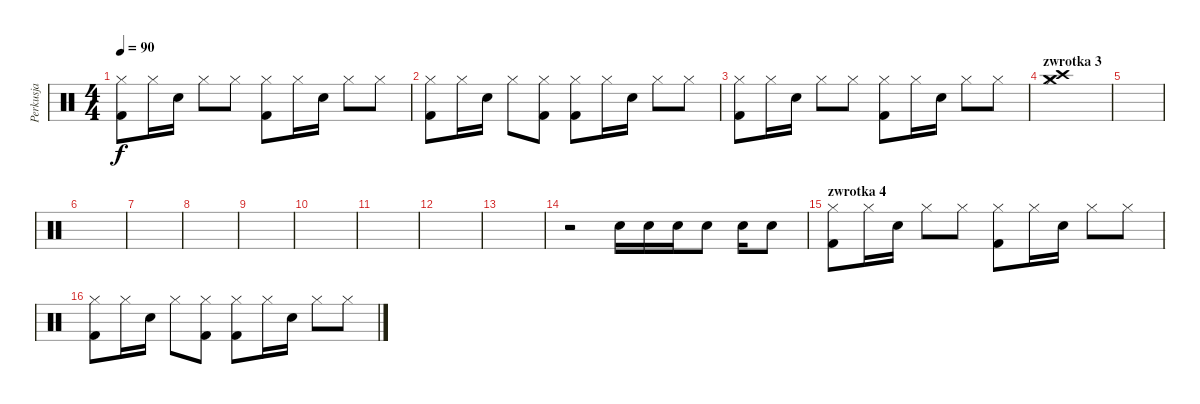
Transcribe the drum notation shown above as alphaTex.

\track ("Perkusja" "Perkusja") {instrument percussion}
\staff {score}
\articulation defaults
\ts (4 4)
\tempo 90
\clef neutral
\ks c
("Kick (hit) 2" "Hi-Hat (closed)").8{dy f} "Hi-Hat (closed)".16 "Electric Snare (hit)".16 "Hi-Hat (closed)".8 "Hi-Hat (closed)".8 ("Kick (hit) 2" "Hi-Hat (closed)").8 "Hi-Hat (closed)".16 "Electric Snare (hit)".16 "Hi-Hat (closed)".8 "Hi-Hat (closed)".8 |
("Kick (hit) 2" "Hi-Hat (closed)").8 "Hi-Hat (closed)".16 "Electric Snare (hit)".16 "Hi-Hat (closed)".8 ("Kick (hit) 2" "Hi-Hat (closed)").8 ("Kick (hit) 2" "Hi-Hat (closed)").8 "Hi-Hat (closed)".16 "Electric Snare (hit)".16 "Hi-Hat (closed)".8 "Hi-Hat (closed)".8 |
("Kick (hit) 2" "Hi-Hat (closed)").8 "Hi-Hat (closed)".16 "Electric Snare (hit)".16 "Hi-Hat (closed)".8 "Hi-Hat (closed)".8 ("Kick (hit) 2" "Hi-Hat (closed)").8 "Hi-Hat (closed)".16 "Electric Snare (hit)".16 "Hi-Hat (closed)".8 "Hi-Hat (closed)".8 |
\section ("" "zwrotka 3")
("Crash medium (hit)" "Crash high (hit)" "Hi-Hat (closed)").1 |
|
|
|
|
|
|
|
|
|
r.2 "Electric Snare (hit)".16 "Electric Snare (hit)".16 "Electric Snare (hit)".16 "Electric Snare (hit)".8 "Snare (hit) 2".16 "Electric Snare (hit)".8 |
\section ("" "zwrotka 4")
("Kick (hit) 2" "Hi-Hat (closed)").8 "Hi-Hat (closed)".16 "Electric Snare (hit)".16 "Hi-Hat (closed)".8 "Hi-Hat (closed)".8 ("Kick (hit) 2" "Hi-Hat (closed)").8 "Hi-Hat (closed)".16 "Electric Snare (hit)".16 "Hi-Hat (closed)".8 "Hi-Hat (closed)".8 |
("Kick (hit) 2" "Hi-Hat (closed)").8 "Hi-Hat (closed)".16 "Electric Snare (hit)".16 "Hi-Hat (closed)".8 ("Kick (hit) 2" "Hi-Hat (closed)").8 ("Kick (hit) 2" "Hi-Hat (closed)").8 "Hi-Hat (closed)".16 "Electric Snare (hit)".16 "Hi-Hat (closed)".8 "Hi-Hat (closed)".8
